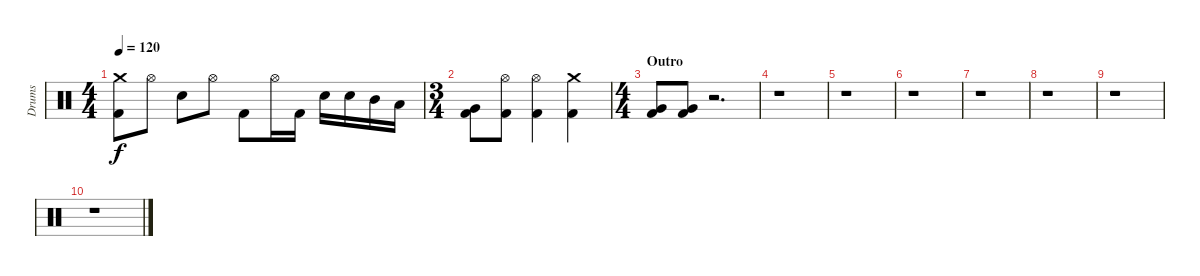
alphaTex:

\track ("Drums" "Drums") {instrument percussion}
\staff {score}
\articulation defaults
\ts (4 4)
\tempo 120
\clef neutral
\ks c
("Crash medium (hit)" "Kick (hit) 2").8{dy f} "Hi-Hat (open)".8 "Electric Snare (hit)".8 "Hi-Hat (open)".8 "Kick (hit) 2".8 "Hi-Hat (open)".16 "Kick (hit) 2".16 "Electric Snare (hit)".16 "Electric Snare (hit)".16 "Mid Tom (hit)".16 "Low Tom (hit)".16 |
\ts (3 4)
("Very Low Tom (hit)" "Kick (hit) 2").8 ("Hi-Hat (open)" "Kick (hit) 2").8 ("Hi-Hat (open)" "Kick (hit) 2").4 ("Crash medium (hit)" "Kick (hit) 2").4 |
\ts (4 4)
\section ("" "Outro")
("Very Low Tom (hit)" "Kick (hit) 2").8 ("Very Low Tom (hit)" "Kick (hit) 2").8 r.2{d} |
r.1 |
r.1 |
r.1 |
r.1 |
r.1 |
r.1 |
r.1
